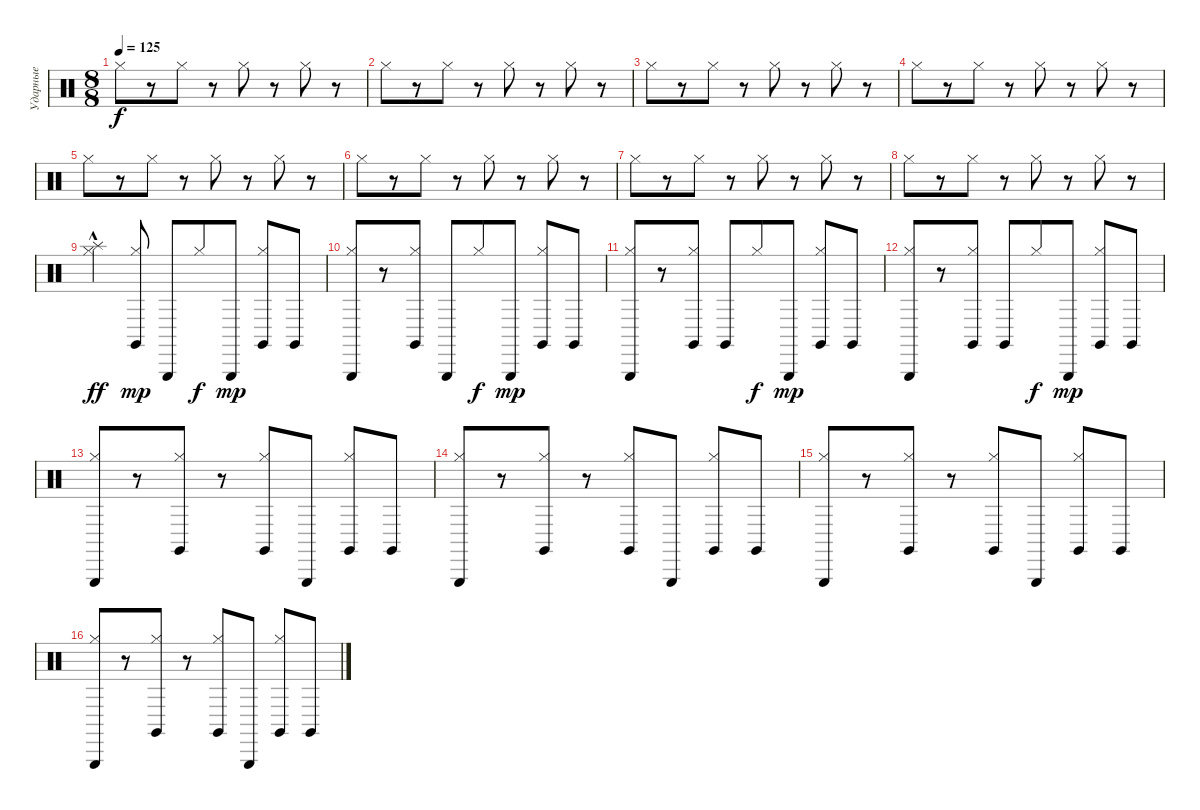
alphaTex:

\track ("Ударные" "Ударные") {instrument percussion}
\staff {score}
\articulation defaults
\ts (8 8)
\tempo 125
\clef neutral
\ks c "Hi-Hat (closed)".8{dy f}
r.8 "Hi-Hat (closed)".8 r.8 "Hi-Hat (closed)".8 r.8 "Hi-Hat (closed)".8 r.8 |
"Hi-Hat (closed)".8 r.8 "Hi-Hat (closed)".8 r.8 "Hi-Hat (closed)".8 r.8 "Hi-Hat (closed)".8 r.8 |
"Hi-Hat (closed)".8 r.8 "Hi-Hat (closed)".8 r.8 "Hi-Hat (closed)".8 r.8 "Hi-Hat (closed)".8 r.8 |
"Hi-Hat (closed)".8 r.8 "Hi-Hat (closed)".8 r.8 "Hi-Hat (closed)".8 r.8 "Hi-Hat (closed)".8 r.8 |
"Hi-Hat (closed)".8 r.8 "Hi-Hat (closed)".8 r.8 "Hi-Hat (closed)".8 r.8 "Hi-Hat (closed)".8 r.8 |
"Hi-Hat (closed)".8 r.8 "Hi-Hat (closed)".8 r.8 "Hi-Hat (closed)".8 r.8 "Hi-Hat (closed)".8 r.8 |
"Hi-Hat (closed)".8 r.8 "Hi-Hat (closed)".8 r.8 "Hi-Hat (closed)".8 r.8 "Hi-Hat (closed)".8 r.8 |
"Hi-Hat (closed)".8 r.8 "Hi-Hat (closed)".8 r.8 "Hi-Hat (closed)".8 r.8 "Hi-Hat (closed)".8 r.8 |
("Hi-Hat (closed)" "Splash (hit)"{hac}).4{dy ff} ("Hi-Hat (closed)" "Claves (hit)").8{dy mp} "Triangle (hit)".8 "Hi-Hat (closed)".8{dy f} "Triangle (hit)".8{dy mp} ("Hi-Hat (closed)" "Claves (hit)").8 "Claves (hit)".8 |
("Hi-Hat (closed)" "Triangle (hit)").8 r.8 ("Hi-Hat (closed)" "Claves (hit)").8 "Triangle (hit)".8 "Hi-Hat (closed)".8{dy f} "Triangle (hit)".8{dy mp} ("Hi-Hat (closed)" "Claves (hit)").8 "Claves (hit)".8 |
("Hi-Hat (closed)" "Triangle (hit)").8 r.8 ("Hi-Hat (closed)" "Claves (hit)").8 "Claves (hit)".8 "Hi-Hat (closed)".8{dy f} "Triangle (hit)".8{dy mp} ("Hi-Hat (closed)" "Claves (hit)").8 "Claves (hit)".8 |
("Hi-Hat (closed)" "Triangle (hit)").8 r.8 ("Hi-Hat (closed)" "Claves (hit)").8 "Claves (hit)".8 "Hi-Hat (closed)".8{dy f} "Triangle (hit)".8{dy mp} ("Hi-Hat (closed)" "Claves (hit)").8 "Claves (hit)".8 |
("Hi-Hat (closed)" "Triangle (hit)").8 r.8 ("Hi-Hat (closed)" "Claves (hit)").8 r.8 ("Hi-Hat (closed)" "Claves (hit)").8 "Triangle (hit)".8 ("Hi-Hat (closed)" "Claves (hit)").8 "Claves (hit)".8 |
("Hi-Hat (closed)" "Triangle (hit)").8 r.8 ("Hi-Hat (closed)" "Claves (hit)").8 r.8 ("Hi-Hat (closed)" "Claves (hit)").8 "Triangle (hit)".8 ("Hi-Hat (closed)" "Claves (hit)").8 "Claves (hit)".8 |
("Hi-Hat (closed)" "Triangle (hit)").8 r.8 ("Hi-Hat (closed)" "Claves (hit)").8 r.8 ("Hi-Hat (closed)" "Claves (hit)").8 "Triangle (hit)".8 ("Hi-Hat (closed)" "Claves (hit)").8 "Claves (hit)".8 |
("Hi-Hat (closed)" "Triangle (hit)").8 r.8 ("Hi-Hat (closed)" "Claves (hit)").8 r.8 ("Hi-Hat (closed)" "Claves (hit)").8 "Triangle (hit)".8 ("Hi-Hat (closed)" "Claves (hit)").8 "Claves (hit)".8
